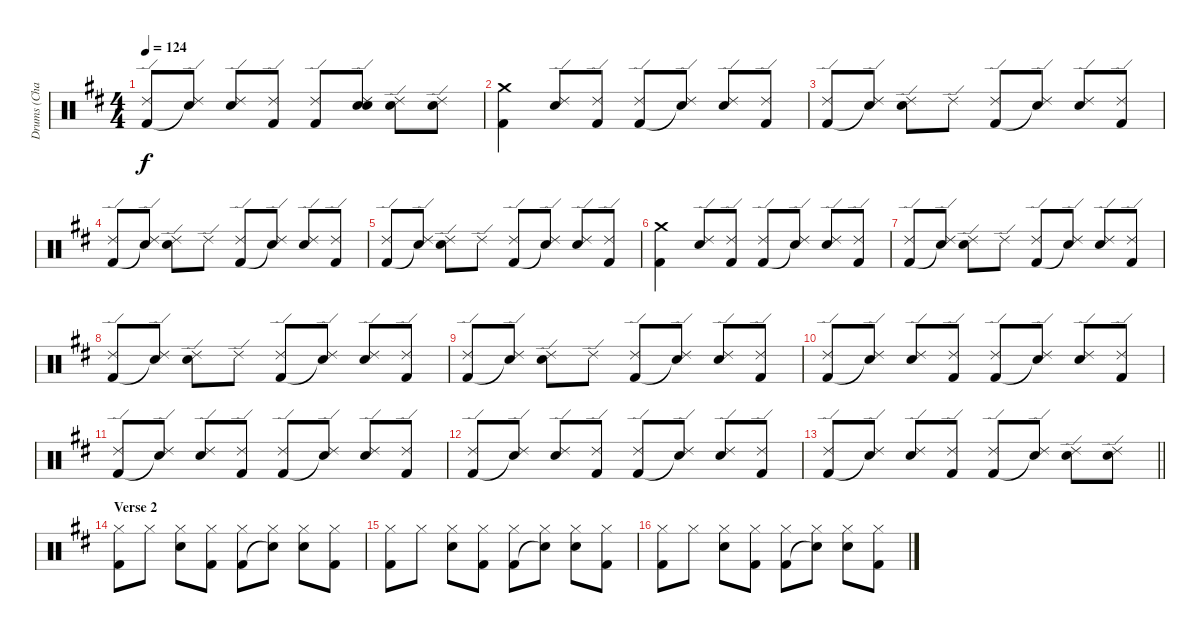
\track ("Drums (Charlie)" "Drums (Cha") {instrument percussion}
\staff {score}
\articulation defaults
\ts (4 4)
\tempo 124
\clef neutral
\ks d
("Ride (edge) 2" "Kick (hit) 2").8{dy f} ("Ride (edge) 2" "Snare (hit)"{t}).8 ("Ride (edge) 2" "Snare (hit) 2").8 ("Ride (edge) 2" "Kick (hit) 2").8 ("Ride (edge) 2" "Kick (hit) 2").8 ("Ride (edge) 2" "Snare (hit) 2" "Snare (hit)").8 ("Ride (edge) 2" "Snare (hit) 2").8 ("Ride (edge) 2" "Snare (hit) 2").8 |
("Crash medium (hit)" "Kick (hit) 2").4 ("Ride (edge) 2" "Snare (hit) 2").8 ("Ride (edge) 2" "Kick (hit) 2").8 ("Ride (edge) 2" "Kick (hit) 2").8 ("Ride (edge) 2" "Snare (hit)"{t}).8 ("Ride (edge) 2" "Snare (hit) 2").8 ("Ride (edge) 2" "Kick (hit) 2").8 |
("Ride (edge) 2" "Kick (hit) 2").8 ("Ride (edge) 2" "Snare (hit)"{t}).8 ("Ride (edge) 2" "Snare (hit) 2").8 "Ride (edge) 2".8 ("Ride (edge) 2" "Kick (hit) 2").8 ("Ride (edge) 2" "Snare (hit)"{t}).8 ("Ride (edge) 2" "Snare (hit) 2").8 ("Ride (edge) 2" "Kick (hit) 2").8 |
("Ride (edge) 2" "Kick (hit) 2").8 ("Ride (edge) 2" "Snare (hit)"{t}).8 ("Ride (edge) 2" "Snare (hit) 2").8 "Ride (edge) 2".8 ("Ride (edge) 2" "Kick (hit) 2").8 ("Ride (edge) 2" "Snare (hit)"{t}).8 ("Ride (edge) 2" "Snare (hit) 2").8 ("Ride (edge) 2" "Kick (hit) 2").8 |
("Ride (edge) 2" "Kick (hit) 2").8 ("Ride (edge) 2" "Snare (hit)"{t}).8 ("Ride (edge) 2" "Snare (hit) 2").8 "Ride (edge) 2".8 ("Ride (edge) 2" "Kick (hit) 2").8 ("Ride (edge) 2" "Snare (hit)"{t}).8 ("Ride (edge) 2" "Snare (hit) 2").8 ("Ride (edge) 2" "Kick (hit) 2").8 |
("Crash medium (hit)" "Kick (hit) 2").4 ("Ride (edge) 2" "Snare (hit) 2").8 ("Ride (edge) 2" "Kick (hit) 2").8 ("Ride (edge) 2" "Kick (hit) 2").8 ("Ride (edge) 2" "Snare (hit)"{t}).8 ("Ride (edge) 2" "Snare (hit) 2").8 ("Ride (edge) 2" "Kick (hit) 2").8 |
("Ride (edge) 2" "Kick (hit) 2").8 ("Ride (edge) 2" "Snare (hit)"{t}).8 ("Ride (edge) 2" "Snare (hit) 2").8 "Ride (edge) 2".8 ("Ride (edge) 2" "Kick (hit) 2").8 ("Ride (edge) 2" "Snare (hit)"{t}).8 ("Ride (edge) 2" "Snare (hit) 2").8 ("Ride (edge) 2" "Kick (hit) 2").8 |
("Ride (edge) 2" "Kick (hit) 2").8 ("Ride (edge) 2" "Snare (hit)"{t}).8 ("Ride (edge) 2" "Snare (hit) 2").8 "Ride (edge) 2".8 ("Ride (edge) 2" "Kick (hit) 2").8 ("Ride (edge) 2" "Snare (hit)"{t}).8 ("Ride (edge) 2" "Snare (hit) 2").8 ("Ride (edge) 2" "Kick (hit) 2").8 |
("Ride (edge) 2" "Kick (hit) 2").8 ("Ride (edge) 2" "Snare (hit)"{t}).8 ("Ride (edge) 2" "Snare (hit) 2").8 "Ride (edge) 2".8 ("Ride (edge) 2" "Kick (hit) 2").8 ("Ride (edge) 2" "Snare (hit)"{t}).8 ("Ride (edge) 2" "Snare (hit) 2").8 ("Ride (edge) 2" "Kick (hit) 2").8 |
("Ride (edge) 2" "Kick (hit) 2").8 ("Ride (edge) 2" "Snare (hit)"{t}).8 ("Ride (edge) 2" "Snare (hit) 2").8 ("Ride (edge) 2" "Kick (hit) 2").8 ("Ride (edge) 2" "Kick (hit) 2").8 ("Ride (edge) 2" "Snare (hit)"{t}).8 ("Ride (edge) 2" "Snare (hit) 2").8 ("Ride (edge) 2" "Kick (hit) 2").8 |
("Ride (edge) 2" "Kick (hit) 2").8 ("Ride (edge) 2" "Snare (hit)"{t}).8 ("Ride (edge) 2" "Snare (hit) 2").8 ("Ride (edge) 2" "Kick (hit) 2").8 ("Ride (edge) 2" "Kick (hit) 2").8 ("Ride (edge) 2" "Snare (hit)"{t}).8 ("Ride (edge) 2" "Snare (hit) 2").8 ("Ride (edge) 2" "Kick (hit) 2").8 |
("Ride (edge) 2" "Kick (hit) 2").8 ("Ride (edge) 2" "Snare (hit)"{t}).8 ("Ride (edge) 2" "Snare (hit) 2").8 ("Ride (edge) 2" "Kick (hit) 2").8 ("Ride (edge) 2" "Kick (hit) 2").8 ("Ride (edge) 2" "Snare (hit)"{t}).8 ("Ride (edge) 2" "Snare (hit) 2").8 ("Ride (edge) 2" "Kick (hit) 2").8 |
\barLineRight lightlight
("Ride (edge) 2" "Kick (hit) 2").8 ("Ride (edge) 2" "Snare (hit)"{t}).8 ("Ride (edge) 2" "Snare (hit) 2").8 ("Ride (edge) 2" "Kick (hit) 2").8 ("Ride (edge) 2" "Kick (hit) 2").8 ("Ride (edge) 2" "Snare (hit)"{t}).8 ("Ride (edge) 2" "Snare (hit) 2").8 ("Ride (edge) 2" "Snare (hit) 2").8 |
\section ("" "Verse 2")
("Hi-Hat (closed)" "Kick (hit) 2").8 "Hi-Hat (closed)".8 ("Hi-Hat (closed)" "Snare (hit) 2").8 ("Hi-Hat (closed)" "Kick (hit) 2").8 ("Hi-Hat (closed)" "Kick (hit) 2").8 ("Hi-Hat (closed)" "Snare (hit)"{t}).8 ("Hi-Hat (closed)" "Snare (hit) 2").8 ("Hi-Hat (closed)" "Kick (hit) 2").8 |
("Hi-Hat (closed)" "Kick (hit) 2").8 "Hi-Hat (closed)".8 ("Hi-Hat (closed)" "Snare (hit) 2").8 ("Hi-Hat (closed)" "Kick (hit) 2").8 ("Hi-Hat (closed)" "Kick (hit) 2").8 ("Hi-Hat (closed)" "Snare (hit)"{t}).8 ("Hi-Hat (closed)" "Snare (hit) 2").8 ("Hi-Hat (closed)" "Kick (hit) 2").8 |
("Hi-Hat (closed)" "Kick (hit) 2").8 "Hi-Hat (closed)".8 ("Hi-Hat (closed)" "Snare (hit) 2").8 ("Hi-Hat (closed)" "Kick (hit) 2").8 ("Hi-Hat (closed)" "Kick (hit) 2").8 ("Hi-Hat (closed)" "Snare (hit)"{t}).8 ("Hi-Hat (closed)" "Snare (hit) 2").8 ("Hi-Hat (closed)" "Kick (hit) 2").8
